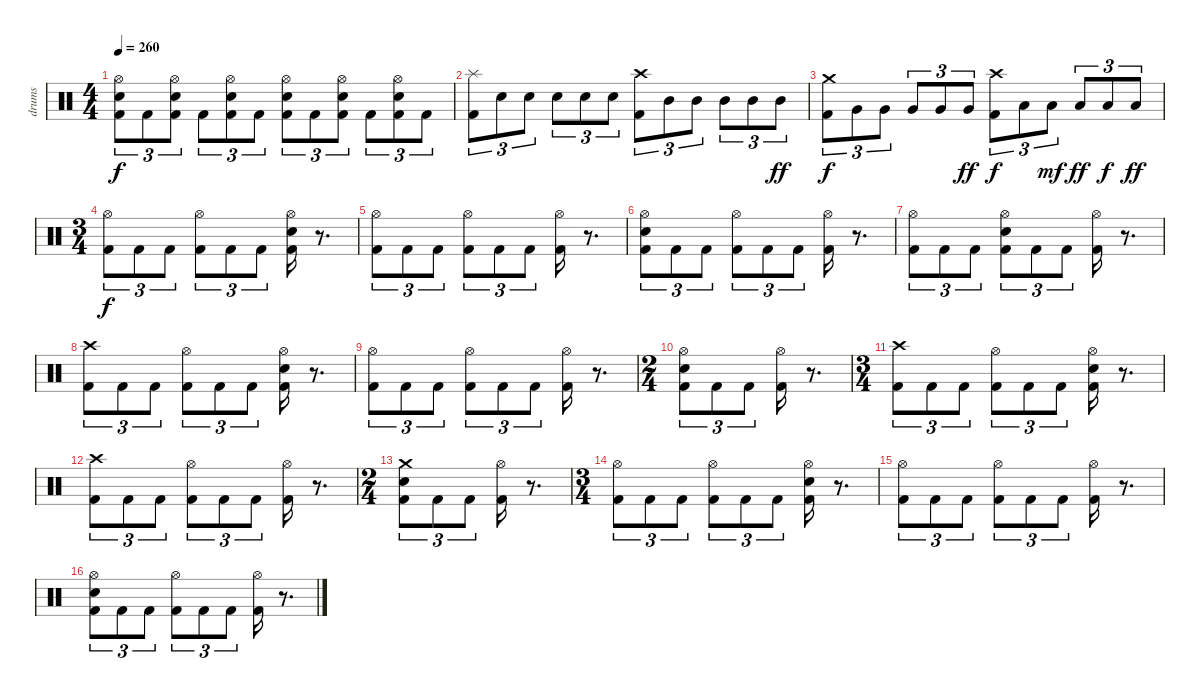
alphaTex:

\track ("drums" "drums") {instrument percussion}
\staff {score}
\articulation defaults
\ts (4 4)
\tempo 260
\clef neutral
\ks c
("Kick (hit) 2" "Snare (hit) 2" "Hi-Hat (open)").8{tu (3 2) dy f} "Kick (hit) 2".8{tu (3 2)} ("Kick (hit) 2" "Snare (hit) 2" "Hi-Hat (open)").8{tu (3 2)} "Kick (hit) 2".8{tu (3 2)} ("Kick (hit) 2" "Snare (hit) 2" "Hi-Hat (open)").8{tu (3 2)} "Kick (hit) 2".8{tu (3 2)} ("Kick (hit) 2" "Snare (hit) 2" "Hi-Hat (open)").8{tu (3 2)} "Kick (hit) 2".8{tu (3 2)} ("Kick (hit) 2" "Snare (hit) 2" "Hi-Hat (open)").8{tu (3 2)} "Kick (hit) 2".8{tu (3 2)} ("Kick (hit) 2" "Snare (hit) 2" "Hi-Hat (open)").8{tu (3 2)} "Kick (hit) 2".8{tu (3 2)} |
("Kick (hit) 2" "Splash (hit)").8{tu (3 2)} "Snare (hit) 2".8{tu (3 2)} "Snare (hit) 2".8{tu (3 2)} "Snare (hit) 2".8{tu (3 2)} "Snare (hit) 2".8{tu (3 2)} "Snare (hit) 2".8{tu (3 2)} ("Kick (hit) 2" "Crash high (hit)").8{tu (3 2)} "Mid Tom (hit)".8{tu (3 2)} "Mid Tom (hit)".8{tu (3 2)} "Mid Tom (hit)".8{tu (3 2)} "Mid Tom (hit)".8{tu (3 2)} "Mid Tom (hit)".8{tu (3 2) dy ff} |
("Kick (hit) 2" "Crash medium (hit)").8{tu (3 2) dy f} "Very Low Tom (hit)".8{tu (3 2)} "Very Low Tom (hit)".8{tu (3 2)} "Very Low Tom (hit)".8{tu (3 2)} "Very Low Tom (hit)".8{tu (3 2)} "Very Low Tom (hit)".8{tu (3 2) dy ff} ("Kick (hit) 2" "Crash high (hit)").8{tu (3 2) dy f} "Low Floor Tom (hit)".8{tu (3 2)} "Low Floor Tom (hit)".8{tu (3 2) dy mf} "Low Floor Tom (hit)".8{tu (3 2) dy ff} "Low Floor Tom (hit)".8{tu (3 2) dy f} "Low Floor Tom (hit)".8{tu (3 2) dy ff} |
\ts (3 4)
("Kick (hit) 2" "Hi-Hat (open)").8{tu (3 2) dy f} "Kick (hit) 2".8{tu (3 2)} "Kick (hit) 2".8{tu (3 2)} ("Kick (hit) 2" "Hi-Hat (open)").8{tu (3 2)} "Kick (hit) 2".8{tu (3 2)} "Kick (hit) 2".8{tu (3 2)} ("Kick (hit) 2" "Snare (hit) 2" "Hi-Hat (open)").16 r.8{d} |
("Kick (hit) 2" "Hi-Hat (open)").8{tu (3 2)} "Kick (hit) 2".8{tu (3 2)} "Kick (hit) 2".8{tu (3 2)} ("Kick (hit) 2" "Hi-Hat (open)").8{tu (3 2)} "Kick (hit) 2".8{tu (3 2)} "Kick (hit) 2".8{tu (3 2)} ("Kick (hit) 2" "Hi-Hat (open)").16 r.8{d} |
("Kick (hit) 2" "Snare (hit) 2" "Hi-Hat (open)").8{tu (3 2)} "Kick (hit) 2".8{tu (3 2)} "Kick (hit) 2".8{tu (3 2)} ("Kick (hit) 2" "Hi-Hat (open)").8{tu (3 2)} "Kick (hit) 2".8{tu (3 2)} "Kick (hit) 2".8{tu (3 2)} ("Kick (hit) 2" "Hi-Hat (open)").16 r.8{d} |
("Kick (hit) 2" "Hi-Hat (open)").8{tu (3 2)} "Kick (hit) 2".8{tu (3 2)} "Kick (hit) 2".8{tu (3 2)} ("Kick (hit) 2" "Snare (hit) 2" "Hi-Hat (open)").8{tu (3 2)} "Kick (hit) 2".8{tu (3 2)} "Kick (hit) 2".8{tu (3 2)} ("Kick (hit) 2" "Hi-Hat (open)").16 r.8{d} |
("Kick (hit) 2" "Crash high (hit)").8{tu (3 2)} "Kick (hit) 2".8{tu (3 2)} "Kick (hit) 2".8{tu (3 2)} ("Kick (hit) 2" "Hi-Hat (open)").8{tu (3 2)} "Kick (hit) 2".8{tu (3 2)} "Kick (hit) 2".8{tu (3 2)} ("Kick (hit) 2" "Snare (hit) 2" "Hi-Hat (open)").16 r.8{d} |
("Kick (hit) 2" "Hi-Hat (open)").8{tu (3 2)} "Kick (hit) 2".8{tu (3 2)} "Kick (hit) 2".8{tu (3 2)} ("Kick (hit) 2" "Hi-Hat (open)").8{tu (3 2)} "Kick (hit) 2".8{tu (3 2)} "Kick (hit) 2".8{tu (3 2)} ("Kick (hit) 2" "Hi-Hat (open)").16 r.8{d} |
\ts (2 4)
("Kick (hit) 2" "Snare (hit) 2" "Hi-Hat (open)").8{tu (3 2)} "Kick (hit) 2".8{tu (3 2)} "Kick (hit) 2".8{tu (3 2)} ("Kick (hit) 2" "Hi-Hat (open)").16 r.8{d} |
\ts (3 4)
("Kick (hit) 2" "Crash high (hit)").8{tu (3 2)} "Kick (hit) 2".8{tu (3 2)} "Kick (hit) 2".8{tu (3 2)} ("Kick (hit) 2" "Hi-Hat (open)").8{tu (3 2)} "Kick (hit) 2".8{tu (3 2)} "Kick (hit) 2".8{tu (3 2)} ("Kick (hit) 2" "Snare (hit) 2" "Hi-Hat (open)").16 r.8{d} |
("Kick (hit) 2" "Crash high (hit)").8{tu (3 2)} "Kick (hit) 2".8{tu (3 2)} "Kick (hit) 2".8{tu (3 2)} ("Kick (hit) 2" "Hi-Hat (open)").8{tu (3 2)} "Kick (hit) 2".8{tu (3 2)} "Kick (hit) 2".8{tu (3 2)} ("Kick (hit) 2" "Hi-Hat (open)").16 r.8{d} |
\ts (2 4)
("Kick (hit) 2" "Snare (hit) 2" "Crash medium (hit)").8{tu (3 2)} "Kick (hit) 2".8{tu (3 2)} "Kick (hit) 2".8{tu (3 2)} ("Kick (hit) 2" "Hi-Hat (open)").16 r.8{d} |
\ts (3 4)
("Kick (hit) 2" "Hi-Hat (open)").8{tu (3 2)} "Kick (hit) 2".8{tu (3 2)} "Kick (hit) 2".8{tu (3 2)} ("Kick (hit) 2" "Hi-Hat (open)").8{tu (3 2)} "Kick (hit) 2".8{tu (3 2)} "Kick (hit) 2".8{tu (3 2)} ("Kick (hit) 2" "Snare (hit) 2" "Hi-Hat (open)").16 r.8{d} |
("Kick (hit) 2" "Hi-Hat (open)").8{tu (3 2)} "Kick (hit) 2".8{tu (3 2)} "Kick (hit) 2".8{tu (3 2)} ("Kick (hit) 2" "Hi-Hat (open)").8{tu (3 2)} "Kick (hit) 2".8{tu (3 2)} "Kick (hit) 2".8{tu (3 2)} ("Kick (hit) 2" "Hi-Hat (open)").16 r.8{d} |
("Kick (hit) 2" "Snare (hit) 2" "Hi-Hat (open)").8{tu (3 2)} "Kick (hit) 2".8{tu (3 2)} "Kick (hit) 2".8{tu (3 2)} ("Kick (hit) 2" "Hi-Hat (open)").8{tu (3 2)} "Kick (hit) 2".8{tu (3 2)} "Kick (hit) 2".8{tu (3 2)} ("Kick (hit) 2" "Hi-Hat (open)").16 r.8{d}
